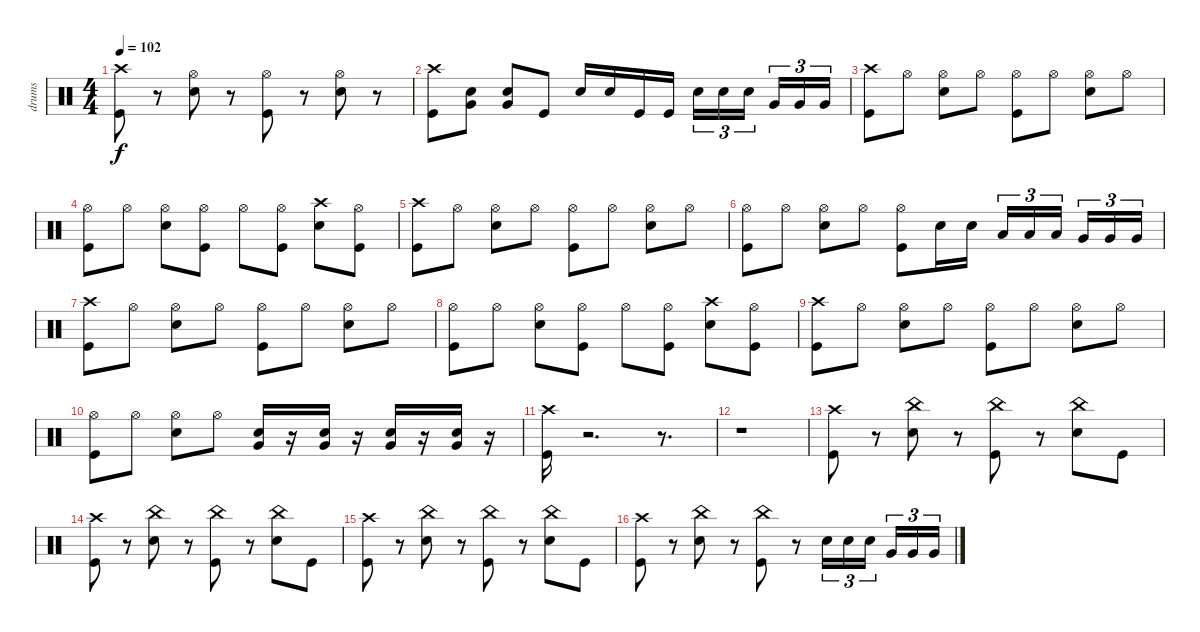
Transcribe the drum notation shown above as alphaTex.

\track ("drums" "drums") {instrument percussion}
\staff {score}
\articulation defaults
\ts (4 4)
\tempo 102
\clef neutral
\ks c
("Crash high (hit)" "Kick (hit)").8{dy f} r.8 ("Hi-Hat (open)" "Snare (hit) 2").8 r.8 ("Hi-Hat (open)" "Kick (hit)").8 r.8 ("Hi-Hat (open)" "Snare (hit) 2").8 r.8 |
("Crash high (hit)" "Kick (hit)").8 ("Very Low Tom (hit)" "Snare (hit) 2").8 ("Very Low Tom (hit)" "Snare (hit) 2").8 "Kick (hit)".8 "Snare (hit) 2".16 "Snare (hit) 2".16 "Kick (hit)".16 "Kick (hit)".16 "Snare (hit) 2".16{tu (3 2)} "Snare (hit) 2".16{tu (3 2)} "Snare (hit) 2".16{tu (3 2)} "Very Low Tom (hit)".16{tu (3 2)} "Very Low Tom (hit)".16{tu (3 2)} "Very Low Tom (hit)".16{tu (3 2)} |
("Crash high (hit)" "Kick (hit)").8 "Hi-Hat (open)".8 ("Hi-Hat (open)" "Snare (hit) 2").8 "Hi-Hat (open)".8 ("Hi-Hat (open)" "Kick (hit)").8 "Hi-Hat (open)".8 ("Hi-Hat (open)" "Snare (hit) 2").8 "Hi-Hat (open)".8 |
("Hi-Hat (open)" "Kick (hit)").8 "Hi-Hat (open)".8 ("Hi-Hat (open)" "Snare (hit) 2").8 ("Hi-Hat (open)" "Kick (hit)").8 "Hi-Hat (open)".8 ("Kick (hit)" "Hi-Hat (open)").8 ("Crash high (hit)" "Snare (hit) 2").8 ("Kick (hit)" "Hi-Hat (open)").8 |
("Crash high (hit)" "Kick (hit)").8 "Hi-Hat (open)".8 ("Hi-Hat (open)" "Snare (hit) 2").8 "Hi-Hat (open)".8 ("Hi-Hat (open)" "Kick (hit)").8 "Hi-Hat (open)".8 ("Hi-Hat (open)" "Snare (hit) 2").8 "Hi-Hat (open)".8 |
("Hi-Hat (open)" "Kick (hit)").8 "Hi-Hat (open)".8 ("Hi-Hat (open)" "Snare (hit) 2").8 "Hi-Hat (open)".8 ("Kick (hit)" "Hi-Hat (open)").8 "Snare (hit) 2".16 "Snare (hit) 2".16 "Low Tom (hit)".16{tu (3 2)} "Low Tom (hit)".16{tu (3 2)} "Low Tom (hit)".16{tu (3 2)} "Very Low Tom (hit)".16{tu (3 2)} "Very Low Tom (hit)".16{tu (3 2)} "Very Low Tom (hit)".16{tu (3 2)} |
("Crash high (hit)" "Kick (hit)").8 "Hi-Hat (open)".8 ("Hi-Hat (open)" "Snare (hit) 2").8 "Hi-Hat (open)".8 ("Hi-Hat (open)" "Kick (hit)").8 "Hi-Hat (open)".8 ("Hi-Hat (open)" "Snare (hit) 2").8 "Hi-Hat (open)".8 |
("Hi-Hat (open)" "Kick (hit)").8 "Hi-Hat (open)".8 ("Hi-Hat (open)" "Snare (hit) 2").8 ("Hi-Hat (open)" "Kick (hit)").8 "Hi-Hat (open)".8 ("Kick (hit)" "Hi-Hat (open)").8 ("Crash high (hit)" "Snare (hit) 2").8 ("Kick (hit)" "Hi-Hat (open)").8 |
("Crash high (hit)" "Kick (hit)").8 "Hi-Hat (open)".8 ("Hi-Hat (open)" "Snare (hit) 2").8 "Hi-Hat (open)".8 ("Hi-Hat (open)" "Kick (hit)").8 "Hi-Hat (open)".8 ("Hi-Hat (open)" "Snare (hit) 2").8 "Hi-Hat (open)".8 |
("Hi-Hat (open)" "Kick (hit)").8 "Hi-Hat (open)".8 ("Hi-Hat (open)" "Snare (hit) 2").8 "Hi-Hat (open)".8 ("Snare (hit) 2" "Very Low Tom (hit)").16 r.16 ("Snare (hit) 2" "Very Low Tom (hit)").16 r.16 ("Snare (hit) 2" "Very Low Tom (hit)").16 r.16 ("Snare (hit) 2" "Very Low Tom (hit)").16 r.16 |
("Crash high (hit)" "Kick (hit)").16 r.2{d} r.8{d} |
r.1 |
("Crash high (hit)" "Kick (hit)").8 r.8 ("China (hit)" "Snare (hit) 2").8 r.8 ("China (hit)" "Kick (hit)").8 r.8 ("China (hit)" "Snare (hit) 2").8 "Kick (hit)".8 |
("Crash high (hit)" "Kick (hit)").8 r.8 ("China (hit)" "Snare (hit) 2").8 r.8 ("China (hit)" "Kick (hit)").8 r.8 ("China (hit)" "Snare (hit) 2").8 "Kick (hit)".8 |
("Crash high (hit)" "Kick (hit)").8 r.8 ("China (hit)" "Snare (hit) 2").8 r.8 ("China (hit)" "Kick (hit)").8 r.8 ("China (hit)" "Snare (hit) 2").8 "Kick (hit)".8 |
("Crash high (hit)" "Kick (hit)").8 r.8 ("China (hit)" "Snare (hit) 2").8 r.8 ("China (hit)" "Kick (hit)").8 r.8 "Snare (hit) 2".16{tu (3 2)} "Snare (hit) 2".16{tu (3 2)} "Snare (hit) 2".16{tu (3 2)} "Very Low Tom (hit)".16{tu (3 2)} "Very Low Tom (hit)".16{tu (3 2)} "Very Low Tom (hit)".16{tu (3 2)}
